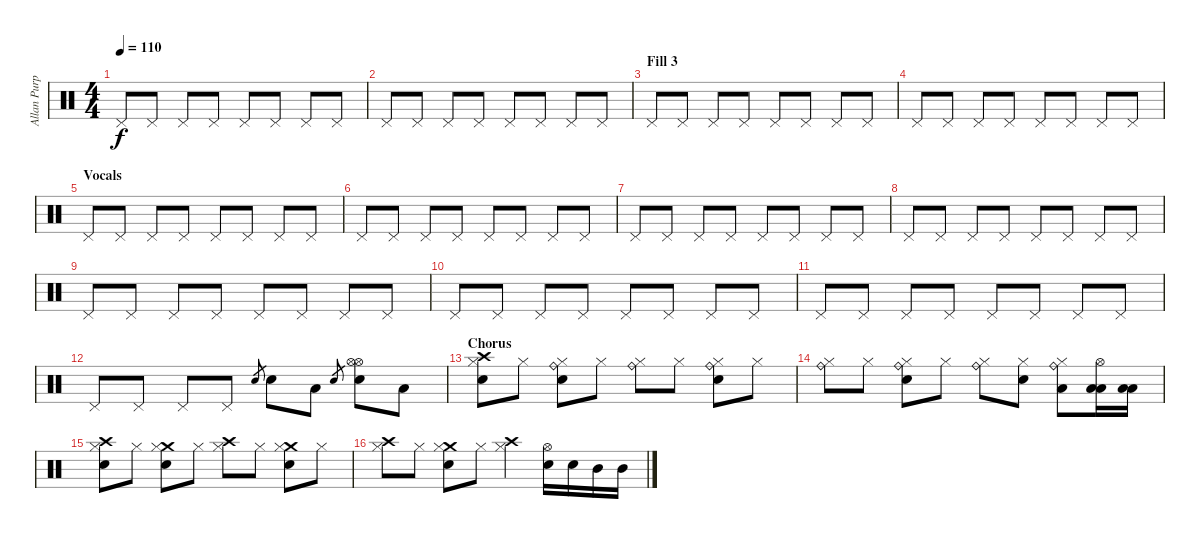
\track ("Allan Purple" "Allan Purp") {instrument percussion}
\staff {score}
\articulation defaults
\ts (4 4)
\tempo 110
\clef neutral
\ks c "Pedal Hi-Hat (hit)".8{dy f} "Pedal Hi-Hat (hit)".8 "Pedal Hi-Hat (hit)".8 "Pedal Hi-Hat (hit)".8 "Pedal Hi-Hat (hit)".8 "Pedal Hi-Hat (hit)".8 "Pedal Hi-Hat (hit)".8 "Pedal Hi-Hat (hit)".8
|
"Pedal Hi-Hat (hit)".8 "Pedal Hi-Hat (hit)".8 "Pedal Hi-Hat (hit)".8 "Pedal Hi-Hat (hit)".8 "Pedal Hi-Hat (hit)".8 "Pedal Hi-Hat (hit)".8 "Pedal Hi-Hat (hit)".8 "Pedal Hi-Hat (hit)".8 |
\section ("" "Fill 3")
"Pedal Hi-Hat (hit)".8 "Pedal Hi-Hat (hit)".8 "Pedal Hi-Hat (hit)".8 "Pedal Hi-Hat (hit)".8 "Pedal Hi-Hat (hit)".8 "Pedal Hi-Hat (hit)".8 "Pedal Hi-Hat (hit)".8 "Pedal Hi-Hat (hit)".8 |
"Pedal Hi-Hat (hit)".8 "Pedal Hi-Hat (hit)".8 "Pedal Hi-Hat (hit)".8 "Pedal Hi-Hat (hit)".8 "Pedal Hi-Hat (hit)".8 "Pedal Hi-Hat (hit)".8 "Pedal Hi-Hat (hit)".8 "Pedal Hi-Hat (hit)".8 |
\section ("" "Vocals")
"Pedal Hi-Hat (hit)".8 "Pedal Hi-Hat (hit)".8 "Pedal Hi-Hat (hit)".8 "Pedal Hi-Hat (hit)".8 "Pedal Hi-Hat (hit)".8 "Pedal Hi-Hat (hit)".8 "Pedal Hi-Hat (hit)".8 "Pedal Hi-Hat (hit)".8 |
"Pedal Hi-Hat (hit)".8 "Pedal Hi-Hat (hit)".8 "Pedal Hi-Hat (hit)".8 "Pedal Hi-Hat (hit)".8 "Pedal Hi-Hat (hit)".8 "Pedal Hi-Hat (hit)".8 "Pedal Hi-Hat (hit)".8 "Pedal Hi-Hat (hit)".8 |
"Pedal Hi-Hat (hit)".8 "Pedal Hi-Hat (hit)".8 "Pedal Hi-Hat (hit)".8 "Pedal Hi-Hat (hit)".8 "Pedal Hi-Hat (hit)".8 "Pedal Hi-Hat (hit)".8 "Pedal Hi-Hat (hit)".8 "Pedal Hi-Hat (hit)".8 |
"Pedal Hi-Hat (hit)".8 "Pedal Hi-Hat (hit)".8 "Pedal Hi-Hat (hit)".8 "Pedal Hi-Hat (hit)".8 "Pedal Hi-Hat (hit)".8 "Pedal Hi-Hat (hit)".8 "Pedal Hi-Hat (hit)".8 "Pedal Hi-Hat (hit)".8 |
"Pedal Hi-Hat (hit)".8 "Pedal Hi-Hat (hit)".8 "Pedal Hi-Hat (hit)".8 "Pedal Hi-Hat (hit)".8 "Pedal Hi-Hat (hit)".8 "Pedal Hi-Hat (hit)".8 "Pedal Hi-Hat (hit)".8 "Pedal Hi-Hat (hit)".8 |
"Pedal Hi-Hat (hit)".8 "Pedal Hi-Hat (hit)".8 "Pedal Hi-Hat (hit)".8 "Pedal Hi-Hat (hit)".8 "Pedal Hi-Hat (hit)".8 "Pedal Hi-Hat (hit)".8 "Pedal Hi-Hat (hit)".8 "Pedal Hi-Hat (hit)".8 |
"Pedal Hi-Hat (hit)".8 "Pedal Hi-Hat (hit)".8 "Pedal Hi-Hat (hit)".8 "Pedal Hi-Hat (hit)".8 "Pedal Hi-Hat (hit)".8 "Pedal Hi-Hat (hit)".8 "Pedal Hi-Hat (hit)".8 "Pedal Hi-Hat (hit)".8 |
"Pedal Hi-Hat (hit)".8 "Pedal Hi-Hat (hit)".8 "Pedal Hi-Hat (hit)".8 "Pedal Hi-Hat (hit)".8 "Electric Snare (hit)".8{gr} "Electric Snare (hit)".8 "Low Tom (hit)".8 "Electric Snare (hit)".8{gr} ("Hi-Hat (open)" "Hi-Hat (open)" "Electric Snare (hit)").8 "Low Tom (hit)".8 |
\section ("" "Chorus")
("Crash high (hit)" "Hi-Hat (closed)" "Snare (hit) 2").8 "Hi-Hat (closed)".8 ("Ride (bell)" "Hi-Hat (closed)" "Electric Snare (hit)").8 "Hi-Hat (closed)".8 ("Ride (bell)" "Hi-Hat (closed)").8 "Hi-Hat (closed)".8 ("Ride (bell)" "Hi-Hat (closed)" "Electric Snare (hit)").8 "Hi-Hat (closed)".8 |
("Ride (bell)" "Hi-Hat (closed)").8 "Hi-Hat (closed)".8 ("Ride (bell)" "Hi-Hat (closed)" "Electric Snare (hit)").8 "Hi-Hat (closed)".8 ("Ride (bell)" "Hi-Hat (closed)").8 ("Hi-Hat (closed)" "Electric Snare (hit)").8 ("Ride (bell)" "Hi-Hat (closed)" "Low Tom (hit)").8 ("Hi-Hat (open)" "Low Tom (hit)" "Low Tom (hit)").16 ("Low Tom (hit)" "Low Tom (hit)").16 |
("Crash high (hit)" "Hi-Hat (closed)" "Snare (hit) 2").8 "Hi-Hat (closed)".8 ("Crash medium (hit)" "Hi-Hat (closed)" "Electric Snare (hit)").8 "Hi-Hat (closed)".8 ("Crash high (hit)" "Hi-Hat (closed)").8 "Hi-Hat (closed)".8 ("Crash medium (hit)" "Hi-Hat (closed)" "Electric Snare (hit)").8 "Hi-Hat (closed)".8 |
("Crash high (hit)" "Hi-Hat (closed)").8 "Hi-Hat (closed)".8 ("Crash medium (hit)" "Hi-Hat (closed)" "Electric Snare (hit)").8 "Hi-Hat (closed)".8 ("Crash high (hit)" "Hi-Hat (closed)").4 ("Hi-Hat (open)" "Electric Snare (hit)").16 "Electric Snare (hit)".16 "Mid Tom (hit)".16 "Mid Tom (hit)".16
